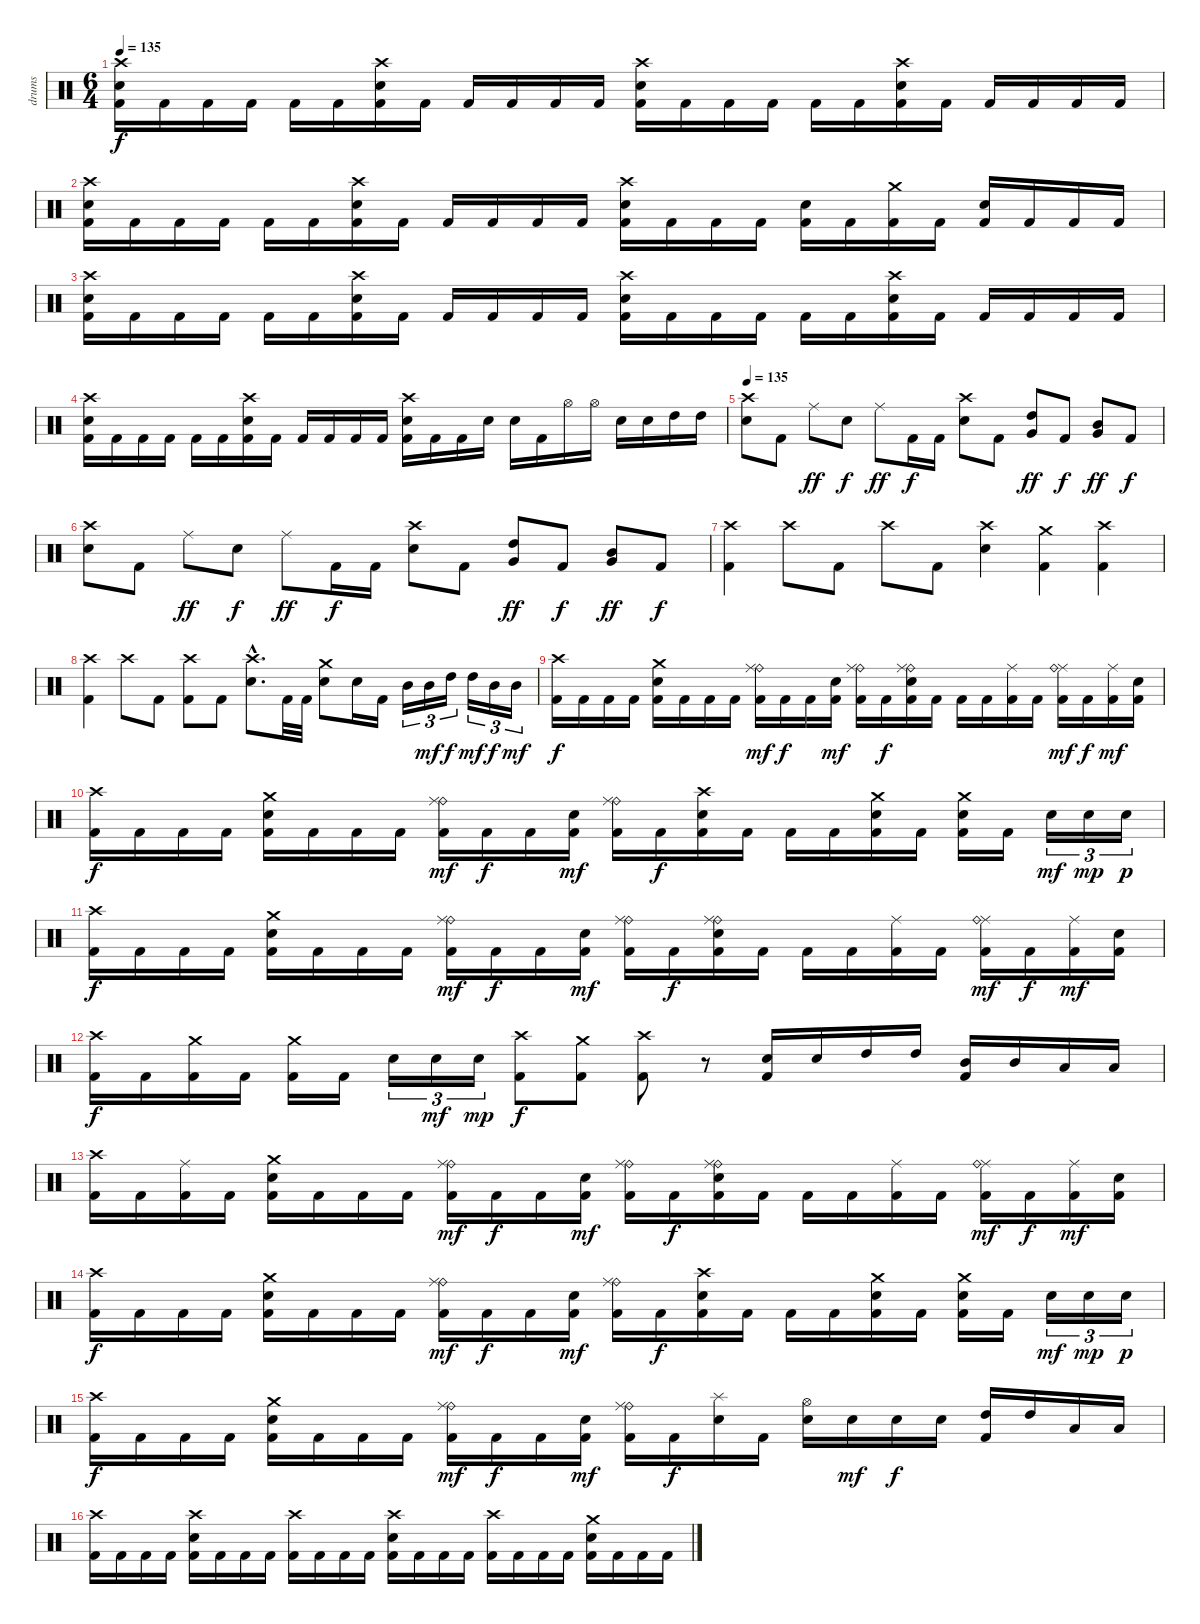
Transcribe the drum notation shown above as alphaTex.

\track ("drums" "drums") {instrument percussion}
\staff {score}
\articulation defaults
\ts (6 4)
\tempo 135
\clef neutral
\ks c
("Crash high (hit)" "Electric Snare (hit)" "Kick (hit) 2").16{dy f} "Kick (hit) 2".16 "Kick (hit) 2".16 "Kick (hit) 2".16 "Kick (hit) 2".16 "Kick (hit) 2".16 ("Crash high (hit)" "Electric Snare (hit)" "Kick (hit) 2").16 "Kick (hit) 2".16 "Kick (hit) 2".16 "Kick (hit) 2".16 "Kick (hit) 2".16 "Kick (hit) 2".16 ("Crash high (hit)" "Electric Snare (hit)" "Kick (hit) 2").16 "Kick (hit) 2".16 "Kick (hit) 2".16 "Kick (hit) 2".16 "Kick (hit) 2".16 "Kick (hit) 2".16 ("Crash high (hit)" "Electric Snare (hit)" "Kick (hit) 2").16 "Kick (hit) 2".16 "Kick (hit) 2".16 "Kick (hit) 2".16 "Kick (hit) 2".16 "Kick (hit) 2".16 |
("Crash high (hit)" "Electric Snare (hit)" "Kick (hit) 2").16 "Kick (hit) 2".16 "Kick (hit) 2".16 "Kick (hit) 2".16 "Kick (hit) 2".16 "Kick (hit) 2".16 ("Crash high (hit)" "Electric Snare (hit)" "Kick (hit) 2").16 "Kick (hit) 2".16 "Kick (hit) 2".16 "Kick (hit) 2".16 "Kick (hit) 2".16 "Kick (hit) 2".16 ("Crash high (hit)" "Electric Snare (hit)" "Kick (hit) 2").16 "Kick (hit) 2".16 "Kick (hit) 2".16 "Kick (hit) 2".16 ("Electric Snare (hit)" "Kick (hit) 2").16 "Kick (hit) 2".16 ("Crash medium (hit)" "Kick (hit) 2").16 "Kick (hit) 2".16 ("Electric Snare (hit)" "Kick (hit) 2").16 "Kick (hit) 2".16 "Kick (hit) 2".16 "Kick (hit) 2".16 |
("Crash high (hit)" "Electric Snare (hit)" "Kick (hit) 2").16 "Kick (hit) 2".16 "Kick (hit) 2".16 "Kick (hit) 2".16 "Kick (hit) 2".16 "Kick (hit) 2".16 ("Crash high (hit)" "Electric Snare (hit)" "Kick (hit) 2").16 "Kick (hit) 2".16 "Kick (hit) 2".16 "Kick (hit) 2".16 "Kick (hit) 2".16 "Kick (hit) 2".16 ("Crash high (hit)" "Electric Snare (hit)" "Kick (hit) 2").16 "Kick (hit) 2".16 "Kick (hit) 2".16 "Kick (hit) 2".16 "Kick (hit) 2".16 "Kick (hit) 2".16 ("Crash high (hit)" "Electric Snare (hit)" "Kick (hit) 2").16 "Kick (hit) 2".16 "Kick (hit) 2".16 "Kick (hit) 2".16 "Kick (hit) 2".16 "Kick (hit) 2".16 |
("Crash high (hit)" "Electric Snare (hit)" "Kick (hit) 2").16 "Kick (hit) 2".16 "Kick (hit) 2".16 "Kick (hit) 2".16 "Kick (hit) 2".16 "Kick (hit) 2".16 ("Crash high (hit)" "Electric Snare (hit)" "Kick (hit) 2").16 "Kick (hit) 2".16 "Kick (hit) 2".16 "Kick (hit) 2".16 "Kick (hit) 2".16 "Kick (hit) 2".16 ("Crash high (hit)" "Electric Snare (hit)" "Kick (hit) 2").16 "Kick (hit) 2".16 "Kick (hit) 2".16 "Electric Snare (hit)".16 "Electric Snare (hit)".16 "Kick (hit) 2".16 "Hi-Hat (open)".16 "Hi-Hat (open)".16 "Electric Snare (hit)".16 "Electric Snare (hit)".16 "High Tom (hit)".16 "High Tom (hit)".16 |
\tempo 135
("Crash high (hit)" "Electric Snare (hit)").8 "Kick (hit) 2".8 "Ride (middle)".8{dy ff} "Electric Snare (hit)".8{dy f} "Ride (middle)".8{dy ff} "Kick (hit) 2".16{dy f} "Kick (hit) 2".16 ("Crash high (hit)" "Electric Snare (hit)").8 "Kick (hit) 2".8 ("High Tom (hit)" "Very Low Tom (hit)").8{dy ff} "Kick (hit) 2".8{dy f} ("Mid Tom (hit)" "Very Low Tom (hit)").8{dy ff} "Kick (hit) 2".8{dy f} |
("Crash high (hit)" "Electric Snare (hit)").8 "Kick (hit) 2".8 "Ride (middle)".8{dy ff} "Electric Snare (hit)".8{dy f} "Ride (middle)".8{dy ff} "Kick (hit) 2".16{dy f} "Kick (hit) 2".16 ("Crash high (hit)" "Electric Snare (hit)").8 "Kick (hit) 2".8 ("High Tom (hit)" "Very Low Tom (hit)").8{dy ff} "Kick (hit) 2".8{dy f} ("Mid Tom (hit)" "Very Low Tom (hit)").8{dy ff} "Kick (hit) 2".8{dy f} |
("Crash high (hit)" "Kick (hit) 2").4 "Crash high (hit)".8 "Kick (hit) 2".8 "Crash high (hit)".8 "Kick (hit) 2".8 ("Crash high (hit)" "Electric Snare (hit)").4 ("Crash medium (hit)" "Kick (hit) 2").4 ("Crash high (hit)" "Kick (hit) 2").4 |
("Crash high (hit)" "Kick (hit) 2").4 "Crash high (hit)".8 "Kick (hit) 2".8 ("Crash high (hit)" "Kick (hit) 2").8 "Kick (hit) 2".8 ("Crash high (hit)"{hac} "Electric Snare (hit)"{hac}).8{d} "Kick (hit) 2".32 "Kick (hit) 2".32 ("Crash medium (hit)" "Electric Snare (hit)").8 "Electric Snare (hit)".16 "Kick (hit) 2".16 "Mid Tom (hit)".16{tu (3 2)} "Mid Tom (hit)".16{tu (3 2) dy mf} "High Tom (hit)".16{tu (3 2) dy f} "High Tom (hit)".16{tu (3 2) dy mf} "Mid Tom (hit)".16{tu (3 2) dy f} "Mid Tom (hit)".16{tu (3 2) dy mf} |
("Crash high (hit)" "Kick (hit) 2").16{dy f} "Kick (hit) 2".16 "Kick (hit) 2".16 "Kick (hit) 2".16 ("Crash medium (hit)" "Electric Snare (hit)" "Kick (hit) 2").16 "Kick (hit) 2".16 "Kick (hit) 2".16 "Kick (hit) 2".16 ("Ride (bell)" "Ride (middle)" "Kick (hit) 2").16{dy mf} "Kick (hit) 2".16{dy f} "Kick (hit) 2".16 ("Electric Snare (hit)" "Kick (hit) 2").16{dy mf} ("Ride (bell)" "Ride (middle)" "Kick (hit) 2").16 "Kick (hit) 2".16{dy f} ("Ride (bell)" "Ride (middle)" "Electric Snare (hit)" "Kick (hit) 2").16 "Kick (hit) 2".16 "Kick (hit) 2".16 "Kick (hit) 2".16 ("Ride (middle)" "Kick (hit) 2").16 "Kick (hit) 2".16 ("Ride (middle)" "Ride (bell)" "Kick (hit) 2").16{dy mf} "Kick (hit) 2".16{dy f} ("Ride (middle)" "Kick (hit) 2").16{dy mf} ("Electric Snare (hit)" "Kick (hit) 2").16 |
("Crash high (hit)" "Kick (hit) 2").16{dy f} "Kick (hit) 2".16 "Kick (hit) 2".16 "Kick (hit) 2".16 ("Crash medium (hit)" "Electric Snare (hit)" "Kick (hit) 2").16 "Kick (hit) 2".16 "Kick (hit) 2".16 "Kick (hit) 2".16 ("Ride (bell)" "Ride (middle)" "Kick (hit) 2").16{dy mf} "Kick (hit) 2".16{dy f} "Kick (hit) 2".16 ("Electric Snare (hit)" "Kick (hit) 2").16{dy mf} ("Ride (bell)" "Ride (middle)" "Kick (hit) 2").16 "Kick (hit) 2".16{dy f} ("Crash high (hit)" "Electric Snare (hit)" "Kick (hit) 2").16 "Kick (hit) 2".16 "Kick (hit) 2".16 "Kick (hit) 2".16 ("Crash medium (hit)" "Electric Snare (hit)" "Kick (hit) 2").16 "Kick (hit) 2".16 ("Crash medium (hit)" "Electric Snare (hit)" "Kick (hit) 2").16 "Kick (hit) 2".16 "Electric Snare (hit)".16{tu (3 2) dy mf} "Electric Snare (hit)".16{tu (3 2) dy mp} "Electric Snare (hit)".16{tu (3 2) dy p} |
("Crash high (hit)" "Kick (hit) 2").16{dy f} "Kick (hit) 2".16 "Kick (hit) 2".16 "Kick (hit) 2".16 ("Crash medium (hit)" "Electric Snare (hit)" "Kick (hit) 2").16 "Kick (hit) 2".16 "Kick (hit) 2".16 "Kick (hit) 2".16 ("Ride (bell)" "Ride (middle)" "Kick (hit) 2").16{dy mf} "Kick (hit) 2".16{dy f} "Kick (hit) 2".16 ("Electric Snare (hit)" "Kick (hit) 2").16{dy mf} ("Ride (bell)" "Ride (middle)" "Kick (hit) 2").16 "Kick (hit) 2".16{dy f} ("Ride (bell)" "Ride (middle)" "Electric Snare (hit)" "Kick (hit) 2").16 "Kick (hit) 2".16 "Kick (hit) 2".16 "Kick (hit) 2".16 ("Ride (middle)" "Kick (hit) 2").16 "Kick (hit) 2".16 ("Ride (middle)" "Ride (bell)" "Kick (hit) 2").16{dy mf} "Kick (hit) 2".16{dy f} ("Ride (middle)" "Kick (hit) 2").16{dy mf} ("Electric Snare (hit)" "Kick (hit) 2").16 |
("Crash high (hit)" "Kick (hit) 2").16{dy f} "Kick (hit) 2".16 ("Crash medium (hit)" "Kick (hit) 2").16 "Kick (hit) 2".16 ("Crash medium (hit)" "Kick (hit) 2").16 "Kick (hit) 2".16 "Electric Snare (hit)".16{tu (3 2)} "Electric Snare (hit)".16{tu (3 2) dy mf} "Electric Snare (hit)".16{tu (3 2) dy mp} ("Crash high (hit)" "Kick (hit) 2").8{dy f} ("Crash medium (hit)" "Kick (hit) 2").8 ("Crash high (hit)" "Kick (hit) 2").8 r.8 ("Electric Snare (hit)" "Kick (hit) 2").16 "Electric Snare (hit)".16 "High Tom (hit)".16 "High Tom (hit)".16 ("Mid Tom (hit)" "Kick (hit) 2").16 "Mid Tom (hit)".16 "Low Tom (hit)".16 "Low Tom (hit)".16 |
("Crash high (hit)" "Kick (hit) 2").16 "Kick (hit) 2".16 ("Ride (middle)" "Kick (hit) 2").16 "Kick (hit) 2".16 ("Crash medium (hit)" "Electric Snare (hit)" "Kick (hit) 2").16 "Kick (hit) 2".16 "Kick (hit) 2".16 "Kick (hit) 2".16 ("Ride (bell)" "Ride (middle)" "Kick (hit) 2").16{dy mf} "Kick (hit) 2".16{dy f} "Kick (hit) 2".16 ("Electric Snare (hit)" "Kick (hit) 2").16{dy mf} ("Ride (bell)" "Ride (middle)" "Kick (hit) 2").16 "Kick (hit) 2".16{dy f} ("Ride (bell)" "Ride (middle)" "Electric Snare (hit)" "Kick (hit) 2").16 "Kick (hit) 2".16 "Kick (hit) 2".16 "Kick (hit) 2".16 ("Ride (middle)" "Kick (hit) 2").16 "Kick (hit) 2".16 ("Ride (middle)" "Ride (bell)" "Kick (hit) 2").16{dy mf} "Kick (hit) 2".16{dy f} ("Ride (middle)" "Kick (hit) 2").16{dy mf} ("Electric Snare (hit)" "Kick (hit) 2").16 |
("Crash high (hit)" "Kick (hit) 2").16{dy f} "Kick (hit) 2".16 "Kick (hit) 2".16 "Kick (hit) 2".16 ("Crash medium (hit)" "Electric Snare (hit)" "Kick (hit) 2").16 "Kick (hit) 2".16 "Kick (hit) 2".16 "Kick (hit) 2".16 ("Ride (bell)" "Ride (middle)" "Kick (hit) 2").16{dy mf} "Kick (hit) 2".16{dy f} "Kick (hit) 2".16 ("Electric Snare (hit)" "Kick (hit) 2").16{dy mf} ("Ride (bell)" "Ride (middle)" "Kick (hit) 2").16 "Kick (hit) 2".16{dy f} ("Crash high (hit)" "Electric Snare (hit)" "Kick (hit) 2").16 "Kick (hit) 2".16 "Kick (hit) 2".16 "Kick (hit) 2".16 ("Crash medium (hit)" "Electric Snare (hit)" "Kick (hit) 2").16 "Kick (hit) 2".16 ("Crash medium (hit)" "Electric Snare (hit)" "Kick (hit) 2").16 "Kick (hit) 2".16 "Electric Snare (hit)".16{tu (3 2) dy mf} "Electric Snare (hit)".16{tu (3 2) dy mp} "Electric Snare (hit)".16{tu (3 2) dy p} |
("Crash high (hit)" "Kick (hit) 2").16{dy f} "Kick (hit) 2".16 "Kick (hit) 2".16 "Kick (hit) 2".16 ("Crash medium (hit)" "Electric Snare (hit)" "Kick (hit) 2").16 "Kick (hit) 2".16 "Kick (hit) 2".16 "Kick (hit) 2".16 ("Ride (bell)" "Ride (middle)" "Kick (hit) 2").16{dy mf} "Kick (hit) 2".16{dy f} "Kick (hit) 2".16 ("Electric Snare (hit)" "Kick (hit) 2").16{dy mf} ("Ride (bell)" "Ride (middle)" "Kick (hit) 2").16 "Kick (hit) 2".16{dy f} ("Splash (hit)" "Electric Snare (hit)").16 "Kick (hit) 2".16 ("Hi-Hat (open)" "Electric Snare (hit)").16 "Electric Snare (hit)".16{dy mf} "Electric Snare (hit)".16{dy f} "Electric Snare (hit)".16 ("High Tom (hit)" "Kick (hit) 2").16 "High Tom (hit)".16 "Low Tom (hit)".16 "Low Tom (hit)".16 |
("Crash high (hit)" "Kick (hit) 2").16 "Kick (hit) 2".16 "Kick (hit) 2".16 "Kick (hit) 2".16 ("Crash high (hit)" "Electric Snare (hit)" "Kick (hit) 2").16 "Kick (hit) 2".16 "Kick (hit) 2".16 "Kick (hit) 2".16 ("Crash high (hit)" "Kick (hit) 2").16 "Kick (hit) 2".16 "Kick (hit) 2".16 "Kick (hit) 2".16 ("Crash high (hit)" "Electric Snare (hit)" "Kick (hit) 2").16 "Kick (hit) 2".16 "Kick (hit) 2".16 "Kick (hit) 2".16 ("Crash high (hit)" "Kick (hit) 2").16 "Kick (hit) 2".16 "Kick (hit) 2".16 "Kick (hit) 2".16 ("Crash medium (hit)" "Electric Snare (hit)" "Kick (hit) 2").16 "Kick (hit) 2".16 "Kick (hit) 2".16 "Kick (hit) 2".16
